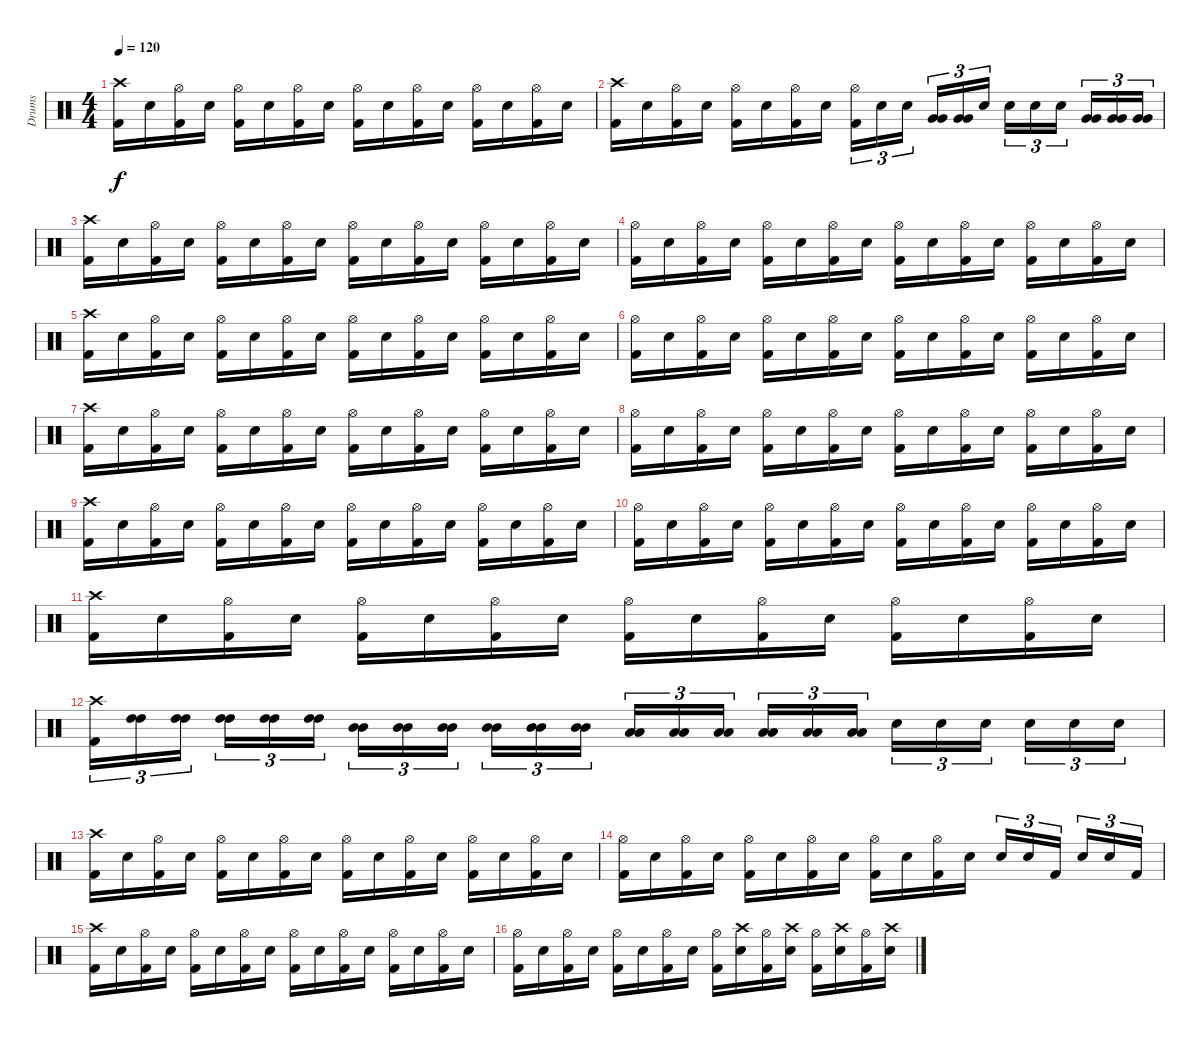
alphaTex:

\track ("Drums" "Drums") {instrument percussion}
\staff {score}
\articulation defaults
\ts (4 4)
\tempo 120
\clef neutral
\ks c
("Crash high (hit)" "Kick (hit) 2").16{dy f} "Electric Snare (hit)".16 ("Hi-Hat (open)" "Kick (hit) 2").16 "Electric Snare (hit)".16 ("Hi-Hat (open)" "Kick (hit) 2").16 "Electric Snare (hit)".16 ("Hi-Hat (open)" "Kick (hit) 2").16 "Electric Snare (hit)".16 ("Hi-Hat (open)" "Kick (hit) 2").16 "Electric Snare (hit)".16 ("Hi-Hat (open)" "Kick (hit) 2").16 "Electric Snare (hit)".16 ("Hi-Hat (open)" "Kick (hit) 2").16 "Electric Snare (hit)".16 ("Hi-Hat (open)" "Kick (hit) 2").16 "Electric Snare (hit)".16 |
("Crash high (hit)" "Kick (hit) 2").16 "Electric Snare (hit)".16 ("Hi-Hat (open)" "Kick (hit) 2").16 "Electric Snare (hit)".16 ("Hi-Hat (open)" "Kick (hit) 2").16 "Electric Snare (hit)".16 ("Hi-Hat (open)" "Kick (hit) 2").16 "Electric Snare (hit)".16 ("Hi-Hat (open)" "Kick (hit) 2").16{tu (3 2)} "Electric Snare (hit)".16{tu (3 2)} "Electric Snare (hit)".16{tu (3 2)} ("Very Low Tom (hit)" "Very Low Tom (hit)").16{tu (3 2)} ("Very Low Tom (hit)" "Very Low Tom (hit)").16{tu (3 2)} "Electric Snare (hit)".16{tu (3 2)} "Electric Snare (hit)".16{tu (3 2)} "Electric Snare (hit)".16{tu (3 2)} "Electric Snare (hit)".16{tu (3 2)} ("Very Low Tom (hit)" "Very Low Tom (hit)").16{tu (3 2)} ("Very Low Tom (hit)" "Very Low Tom (hit)").16{tu (3 2)} ("Very Low Tom (hit)" "Very Low Tom (hit)").16{tu (3 2)} |
("Crash high (hit)" "Kick (hit) 2").16{balance 8} "Electric Snare (hit)".16 ("Hi-Hat (open)" "Kick (hit) 2").16 "Electric Snare (hit)".16 ("Hi-Hat (open)" "Kick (hit) 2").16 "Electric Snare (hit)".16 ("Hi-Hat (open)" "Kick (hit) 2").16 "Electric Snare (hit)".16 ("Hi-Hat (open)" "Kick (hit) 2").16 "Electric Snare (hit)".16 ("Hi-Hat (open)" "Kick (hit) 2").16 "Electric Snare (hit)".16 ("Hi-Hat (open)" "Kick (hit) 2").16 "Electric Snare (hit)".16 ("Hi-Hat (open)" "Kick (hit) 2").16 "Electric Snare (hit)".16 |
("Hi-Hat (open)" "Kick (hit) 2").16 "Electric Snare (hit)".16 ("Hi-Hat (open)" "Kick (hit) 2").16 "Electric Snare (hit)".16 ("Hi-Hat (open)" "Kick (hit) 2").16 "Electric Snare (hit)".16 ("Hi-Hat (open)" "Kick (hit) 2").16 "Electric Snare (hit)".16 ("Hi-Hat (open)" "Kick (hit) 2").16 "Electric Snare (hit)".16 ("Hi-Hat (open)" "Kick (hit) 2").16 "Electric Snare (hit)".16 ("Hi-Hat (open)" "Kick (hit) 2").16 "Electric Snare (hit)".16 ("Hi-Hat (open)" "Kick (hit) 2").16 "Electric Snare (hit)".16 |
("Crash high (hit)" "Kick (hit) 2").16 "Electric Snare (hit)".16 ("Hi-Hat (open)" "Kick (hit) 2").16 "Electric Snare (hit)".16 ("Hi-Hat (open)" "Kick (hit) 2").16 "Electric Snare (hit)".16 ("Hi-Hat (open)" "Kick (hit) 2").16 "Electric Snare (hit)".16 ("Hi-Hat (open)" "Kick (hit) 2").16 "Electric Snare (hit)".16 ("Hi-Hat (open)" "Kick (hit) 2").16 "Electric Snare (hit)".16 ("Hi-Hat (open)" "Kick (hit) 2").16 "Electric Snare (hit)".16 ("Hi-Hat (open)" "Kick (hit) 2").16 "Electric Snare (hit)".16 |
("Hi-Hat (open)" "Kick (hit) 2").16 "Electric Snare (hit)".16 ("Hi-Hat (open)" "Kick (hit) 2").16 "Electric Snare (hit)".16 ("Hi-Hat (open)" "Kick (hit) 2").16 "Electric Snare (hit)".16 ("Hi-Hat (open)" "Kick (hit) 2").16 "Electric Snare (hit)".16 ("Hi-Hat (open)" "Kick (hit) 2").16 "Electric Snare (hit)".16 ("Hi-Hat (open)" "Kick (hit) 2").16 "Electric Snare (hit)".16 ("Hi-Hat (open)" "Kick (hit) 2").16 "Electric Snare (hit)".16 ("Hi-Hat (open)" "Kick (hit) 2").16 "Electric Snare (hit)".16 |
("Crash high (hit)" "Kick (hit) 2").16 "Electric Snare (hit)".16 ("Hi-Hat (open)" "Kick (hit) 2").16 "Electric Snare (hit)".16 ("Hi-Hat (open)" "Kick (hit) 2").16 "Electric Snare (hit)".16 ("Hi-Hat (open)" "Kick (hit) 2").16 "Electric Snare (hit)".16 ("Hi-Hat (open)" "Kick (hit) 2").16 "Electric Snare (hit)".16 ("Hi-Hat (open)" "Kick (hit) 2").16 "Electric Snare (hit)".16 ("Hi-Hat (open)" "Kick (hit) 2").16 "Electric Snare (hit)".16 ("Hi-Hat (open)" "Kick (hit) 2").16 "Electric Snare (hit)".16 |
("Hi-Hat (open)" "Kick (hit) 2").16 "Electric Snare (hit)".16 ("Hi-Hat (open)" "Kick (hit) 2").16 "Electric Snare (hit)".16 ("Hi-Hat (open)" "Kick (hit) 2").16 "Electric Snare (hit)".16 ("Hi-Hat (open)" "Kick (hit) 2").16 "Electric Snare (hit)".16 ("Hi-Hat (open)" "Kick (hit) 2").16 "Electric Snare (hit)".16 ("Hi-Hat (open)" "Kick (hit) 2").16 "Electric Snare (hit)".16 ("Hi-Hat (open)" "Kick (hit) 2").16 "Electric Snare (hit)".16 ("Hi-Hat (open)" "Kick (hit) 2").16 "Electric Snare (hit)".16 |
("Crash high (hit)" "Kick (hit) 2").16 "Electric Snare (hit)".16 ("Hi-Hat (open)" "Kick (hit) 2").16 "Electric Snare (hit)".16 ("Hi-Hat (open)" "Kick (hit) 2").16 "Electric Snare (hit)".16 ("Hi-Hat (open)" "Kick (hit) 2").16 "Electric Snare (hit)".16 ("Hi-Hat (open)" "Kick (hit) 2").16 "Electric Snare (hit)".16 ("Hi-Hat (open)" "Kick (hit) 2").16 "Electric Snare (hit)".16 ("Hi-Hat (open)" "Kick (hit) 2").16 "Electric Snare (hit)".16 ("Hi-Hat (open)" "Kick (hit) 2").16 "Electric Snare (hit)".16 |
("Hi-Hat (open)" "Kick (hit) 2").16 "Electric Snare (hit)".16 ("Hi-Hat (open)" "Kick (hit) 2").16 "Electric Snare (hit)".16 ("Hi-Hat (open)" "Kick (hit) 2").16 "Electric Snare (hit)".16 ("Hi-Hat (open)" "Kick (hit) 2").16 "Electric Snare (hit)".16 ("Hi-Hat (open)" "Kick (hit) 2").16 "Electric Snare (hit)".16 ("Hi-Hat (open)" "Kick (hit) 2").16 "Electric Snare (hit)".16 ("Hi-Hat (open)" "Kick (hit) 2").16 "Electric Snare (hit)".16 ("Hi-Hat (open)" "Kick (hit) 2").16 "Electric Snare (hit)".16 |
("Crash high (hit)" "Kick (hit) 2").16 "Electric Snare (hit)".16 ("Hi-Hat (open)" "Kick (hit) 2").16 "Electric Snare (hit)".16 ("Hi-Hat (open)" "Kick (hit) 2").16 "Electric Snare (hit)".16 ("Hi-Hat (open)" "Kick (hit) 2").16 "Electric Snare (hit)".16 ("Hi-Hat (open)" "Kick (hit) 2").16 "Electric Snare (hit)".16 ("Hi-Hat (open)" "Kick (hit) 2").16 "Electric Snare (hit)".16 ("Hi-Hat (open)" "Kick (hit) 2").16 "Electric Snare (hit)".16 ("Hi-Hat (open)" "Kick (hit) 2").16 "Electric Snare (hit)".16 |
("Crash high (hit)" "Kick (hit) 2").16{tu (3 2)} ("High Tom (hit)" "High Tom (hit)").16{tu (3 2) balance 10} ("High Tom (hit)" "High Tom (hit)").16{tu (3 2)} ("High Tom (hit)" "High Tom (hit)").16{tu (3 2)} ("High Tom (hit)" "High Tom (hit)").16{tu (3 2)} ("High Tom (hit)" "High Tom (hit)").16{tu (3 2)} ("Mid Tom (hit)" "Mid Tom (hit)").16{tu (3 2) balance 8} ("Mid Tom (hit)" "Mid Tom (hit)").16{tu (3 2)} ("Mid Tom (hit)" "Mid Tom (hit)").16{tu (3 2)} ("Mid Tom (hit)" "Mid Tom (hit)").16{tu (3 2)} ("Mid Tom (hit)" "Mid Tom (hit)").16{tu (3 2)} ("Mid Tom (hit)" "Mid Tom (hit)").16{tu (3 2)} ("Low Tom (hit)" "Low Tom (hit)").16{tu (3 2) balance 6} ("Low Tom (hit)" "Low Tom (hit)").16{tu (3 2)} ("Low Tom (hit)" "Low Tom (hit)").16{tu (3 2)} ("Low Tom (hit)" "Low Tom (hit)").16{tu (3 2)} ("Low Tom (hit)" "Low Tom (hit)").16{tu (3 2)} ("Low Tom (hit)" "Low Tom (hit)").16{tu (3 2)} "Electric Snare (hit)".16{tu (3 2) balance 8} "Electric Snare (hit)".16{tu (3 2)} "Electric Snare (hit)".16{tu (3 2)} "Electric Snare (hit)".16{tu (3 2)} "Electric Snare (hit)".16{tu (3 2)} "Electric Snare (hit)".16{tu (3 2)} |
("Crash high (hit)" "Kick (hit) 2").16{balance 8} "Electric Snare (hit)".16 ("Hi-Hat (open)" "Kick (hit) 2").16 "Electric Snare (hit)".16 ("Hi-Hat (open)" "Kick (hit) 2").16 "Electric Snare (hit)".16 ("Hi-Hat (open)" "Kick (hit) 2").16 "Electric Snare (hit)".16 ("Hi-Hat (open)" "Kick (hit) 2").16 "Electric Snare (hit)".16 ("Hi-Hat (open)" "Kick (hit) 2").16 "Electric Snare (hit)".16 ("Hi-Hat (open)" "Kick (hit) 2").16 "Electric Snare (hit)".16 ("Hi-Hat (open)" "Kick (hit) 2").16 "Electric Snare (hit)".16 |
("Hi-Hat (open)" "Kick (hit) 2").16 "Electric Snare (hit)".16 ("Hi-Hat (open)" "Kick (hit) 2").16 "Electric Snare (hit)".16 ("Hi-Hat (open)" "Kick (hit) 2").16 "Electric Snare (hit)".16 ("Hi-Hat (open)" "Kick (hit) 2").16 "Electric Snare (hit)".16 ("Hi-Hat (open)" "Kick (hit) 2").16 "Electric Snare (hit)".16 ("Hi-Hat (open)" "Kick (hit) 2").16 "Electric Snare (hit)".16 "Electric Snare (hit)".16{tu (3 2)} "Electric Snare (hit)".16{tu (3 2)} "Kick (hit) 2".16{tu (3 2)} "Electric Snare (hit)".16{tu (3 2)} "Electric Snare (hit)".16{tu (3 2)} "Kick (hit) 2".16{tu (3 2)} |
("Crash high (hit)" "Kick (hit) 2").16 "Electric Snare (hit)".16 ("Hi-Hat (open)" "Kick (hit) 2").16 "Electric Snare (hit)".16 ("Hi-Hat (open)" "Kick (hit) 2").16 "Electric Snare (hit)".16 ("Hi-Hat (open)" "Kick (hit) 2").16 "Electric Snare (hit)".16 ("Hi-Hat (open)" "Kick (hit) 2").16 "Electric Snare (hit)".16 ("Hi-Hat (open)" "Kick (hit) 2").16 "Electric Snare (hit)".16 ("Hi-Hat (open)" "Kick (hit) 2").16 "Electric Snare (hit)".16 ("Hi-Hat (open)" "Kick (hit) 2").16 "Electric Snare (hit)".16 |
("Hi-Hat (open)" "Kick (hit) 2").16 "Electric Snare (hit)".16 ("Hi-Hat (open)" "Kick (hit) 2").16 "Electric Snare (hit)".16 ("Hi-Hat (open)" "Kick (hit) 2").16 "Electric Snare (hit)".16 ("Hi-Hat (open)" "Kick (hit) 2").16 "Electric Snare (hit)".16 ("Hi-Hat (open)" "Kick (hit) 2").16 ("Crash high (hit)" "Electric Snare (hit)").16 ("Hi-Hat (open)" "Kick (hit) 2").16 ("Crash high (hit)" "Electric Snare (hit)").16 ("Hi-Hat (open)" "Kick (hit) 2").16 ("Crash high (hit)" "Electric Snare (hit)").16 ("Hi-Hat (open)" "Kick (hit) 2").16 ("Crash high (hit)" "Electric Snare (hit)").16
